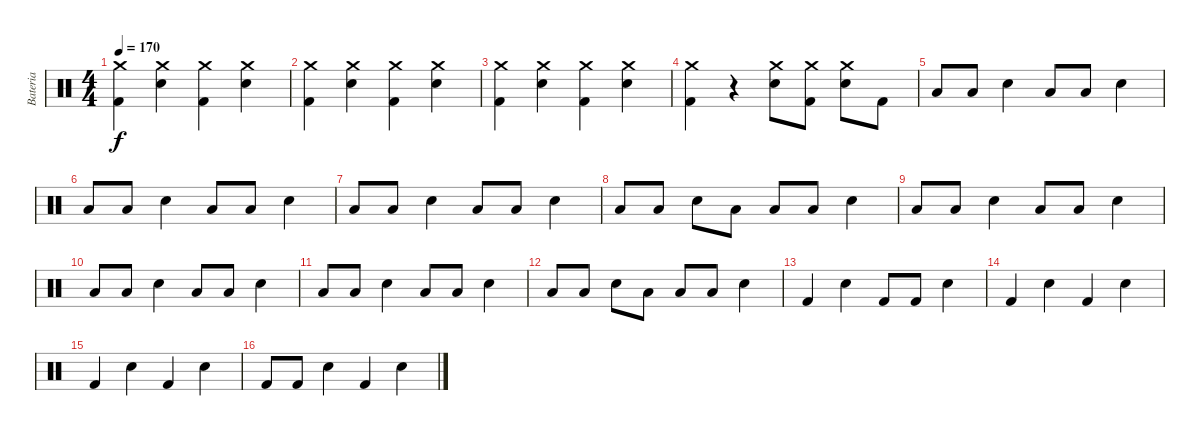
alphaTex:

\track ("Bateria" "Bateria") {instrument percussion}
\staff {score}
\articulation defaults
\ts (4 4)
\tempo 170
\clef neutral
\ks c
("Crash medium (hit)" "Kick (hit) 2").4{dy f} ("Crash medium (hit)" "Electric Snare (hit)").4 ("Crash medium (hit)" "Kick (hit) 2").4 ("Crash medium (hit)" "Electric Snare (hit)").4 |
("Crash medium (hit)" "Kick (hit) 2").4 ("Crash medium (hit)" "Electric Snare (hit)").4 ("Crash medium (hit)" "Kick (hit) 2").4 ("Crash medium (hit)" "Electric Snare (hit)").4 |
("Crash medium (hit)" "Kick (hit) 2").4 ("Crash medium (hit)" "Electric Snare (hit)").4 ("Crash medium (hit)" "Kick (hit) 2").4 ("Crash medium (hit)" "Electric Snare (hit)").4 |
("Crash medium (hit)" "Kick (hit) 2").4 r.4 ("Crash medium (hit)" "Electric Snare (hit)").8 ("Crash medium (hit)" "Kick (hit) 2").8 ("Crash medium (hit)" "Electric Snare (hit)").8 "Kick (hit) 2".8 |
"Low Tom (hit)".8 "Low Tom (hit)".8 "Electric Snare (hit)".4 "Low Tom (hit)".8 "Low Tom (hit)".8 "Electric Snare (hit)".4 |
"Low Tom (hit)".8 "Low Tom (hit)".8 "Electric Snare (hit)".4 "Low Tom (hit)".8 "Low Tom (hit)".8 "Electric Snare (hit)".4 |
"Low Tom (hit)".8 "Low Tom (hit)".8 "Electric Snare (hit)".4 "Low Tom (hit)".8 "Low Tom (hit)".8 "Electric Snare (hit)".4 |
"Low Tom (hit)".8 "Low Tom (hit)".8 "Electric Snare (hit)".8 "Low Tom (hit)".8 "Low Tom (hit)".8 "Low Tom (hit)".8 "Electric Snare (hit)".4 |
"Low Tom (hit)".8 "Low Tom (hit)".8 "Electric Snare (hit)".4 "Low Tom (hit)".8 "Low Tom (hit)".8 "Electric Snare (hit)".4 |
"Low Tom (hit)".8 "Low Tom (hit)".8 "Electric Snare (hit)".4 "Low Tom (hit)".8 "Low Tom (hit)".8 "Electric Snare (hit)".4 |
"Low Tom (hit)".8 "Low Tom (hit)".8 "Electric Snare (hit)".4 "Low Tom (hit)".8 "Low Tom (hit)".8 "Electric Snare (hit)".4 |
"Low Tom (hit)".8 "Low Tom (hit)".8 "Electric Snare (hit)".8 "Low Tom (hit)".8 "Low Tom (hit)".8 "Low Tom (hit)".8 "Electric Snare (hit)".4 |
"Kick (hit) 2".4 "Electric Snare (hit)".4 "Kick (hit) 2".8 "Kick (hit) 2".8 "Electric Snare (hit)".4 |
"Kick (hit) 2".4 "Electric Snare (hit)".4 "Kick (hit) 2".4 "Electric Snare (hit)".4 |
"Kick (hit) 2".4 "Electric Snare (hit)".4 "Kick (hit) 2".4 "Electric Snare (hit)".4 |
"Kick (hit) 2".8 "Kick (hit) 2".8 "Electric Snare (hit)".4 "Kick (hit) 2".4 "Electric Snare (hit)".4
